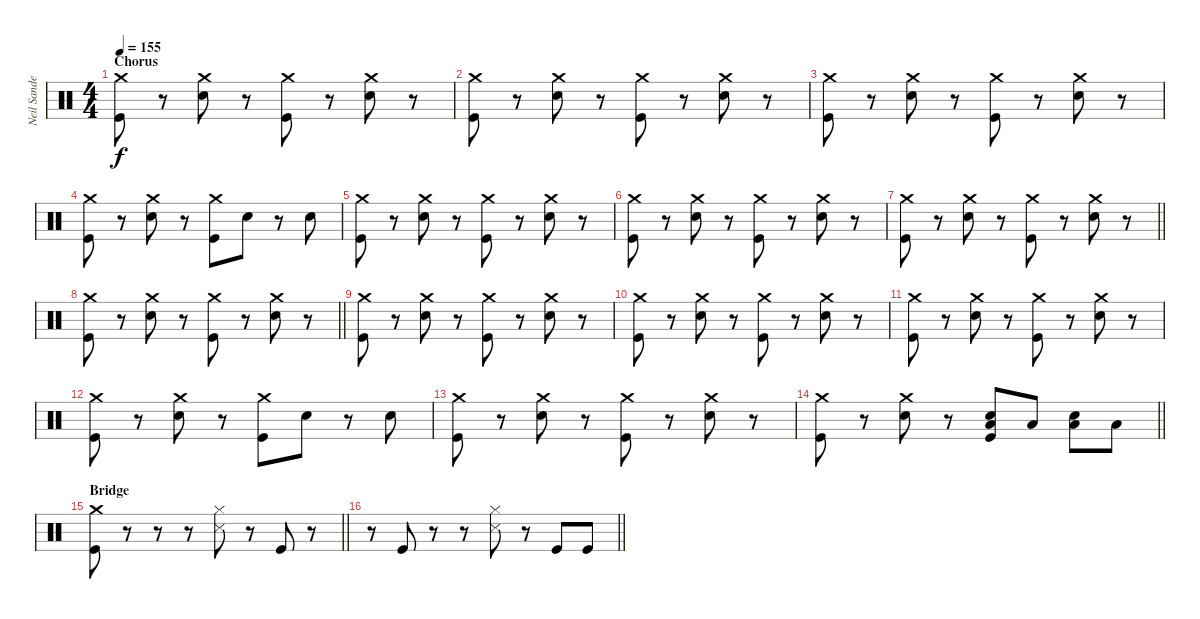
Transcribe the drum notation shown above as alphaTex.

\track ("Neil Sanderson" "Neil Sande") {instrument percussion}
\staff {score}
\articulation defaults
\ts (4 4)
\section ("" "Chorus")
\tempo 155
\clef neutral
\ks c
("Kick (hit)" "Crash medium (hit)").8{dy f} r.8 ("Electric Snare (hit)" "Crash medium (hit)").8 r.8 ("Kick (hit)" "Crash medium (hit)").8 r.8 ("Electric Snare (hit)" "Crash medium (hit)").8 r.8 |
("Kick (hit)" "Crash medium (hit)").8 r.8 ("Electric Snare (hit)" "Crash medium (hit)").8 r.8 ("Kick (hit)" "Crash medium (hit)").8 r.8 ("Electric Snare (hit)" "Crash medium (hit)").8 r.8 |
("Kick (hit)" "Crash medium (hit)").8 r.8 ("Electric Snare (hit)" "Crash medium (hit)").8 r.8 ("Kick (hit)" "Crash medium (hit)").8 r.8 ("Electric Snare (hit)" "Crash medium (hit)").8 r.8 |
("Kick (hit)" "Crash medium (hit)").8 r.8 ("Electric Snare (hit)" "Crash medium (hit)").8 r.8 ("Kick (hit)" "Crash medium (hit)").8 "Electric Snare (hit)".8 r.8 "Electric Snare (hit)".8 |
("Kick (hit)" "Crash medium (hit)").8 r.8 ("Electric Snare (hit)" "Crash medium (hit)").8 r.8 ("Kick (hit)" "Crash medium (hit)").8 r.8 ("Electric Snare (hit)" "Crash medium (hit)").8 r.8 |
("Kick (hit)" "Crash medium (hit)").8 r.8 ("Electric Snare (hit)" "Crash medium (hit)").8 r.8 ("Kick (hit)" "Crash medium (hit)").8 r.8 ("Electric Snare (hit)" "Crash medium (hit)").8 r.8 |
\barLineRight lightlight
("Kick (hit)" "Crash medium (hit)").8 r.8 ("Electric Snare (hit)" "Crash medium (hit)").8 r.8 ("Kick (hit)" "Crash medium (hit)").8 r.8 ("Electric Snare (hit)" "Crash medium (hit)").8 r.8 |
\barLineRight lightlight
("Kick (hit)" "Crash medium (hit)").8 r.8 ("Electric Snare (hit)" "Crash medium (hit)").8 r.8 ("Kick (hit)" "Crash medium (hit)").8 r.8 ("Electric Snare (hit)" "Crash medium (hit)").8 r.8 |
\section ("" "")
("Kick (hit)" "Crash medium (hit)").8 r.8 ("Electric Snare (hit)" "Crash medium (hit)").8 r.8 ("Kick (hit)" "Crash medium (hit)").8 r.8 ("Electric Snare (hit)" "Crash medium (hit)").8 r.8 |
("Kick (hit)" "Crash medium (hit)").8 r.8 ("Electric Snare (hit)" "Crash medium (hit)").8 r.8 ("Kick (hit)" "Crash medium (hit)").8 r.8 ("Electric Snare (hit)" "Crash medium (hit)").8 r.8 |
("Kick (hit)" "Crash medium (hit)").8 r.8 ("Electric Snare (hit)" "Crash medium (hit)").8 r.8 ("Kick (hit)" "Crash medium (hit)").8 r.8 ("Electric Snare (hit)" "Crash medium (hit)").8 r.8 |
("Kick (hit)" "Crash medium (hit)").8 r.8 ("Electric Snare (hit)" "Crash medium (hit)").8 r.8 ("Kick (hit)" "Crash medium (hit)").8 "Electric Snare (hit)".8 r.8 "Electric Snare (hit)".8 |
("Kick (hit)" "Crash medium (hit)").8 r.8 ("Electric Snare (hit)" "Crash medium (hit)").8 r.8 ("Kick (hit)" "Crash medium (hit)").8 r.8 ("Electric Snare (hit)" "Crash medium (hit)").8 r.8 |
\barLineRight lightlight
("Kick (hit)" "Crash medium (hit)").8 r.8 ("Electric Snare (hit)" "Crash medium (hit)").8 r.8 ("Kick (hit)" "Electric Snare (hit)" "Low Tom (hit)").8 "Low Tom (hit)".8 ("Electric Snare (hit)" "Low Tom (hit)").8 "Low Tom (hit)".8 |
\section ("" "Bridge")
\barLineRight lightlight
("Kick (hit)" "Crash medium (hit)").8 r.8 r.8 r.8 ("Snare (side stick) 3" "Hi-Hat (closed)").8 r.8 "Kick (hit)".8 r.8 |
\barLineRight lightlight
r.8 "Kick (hit)".8 r.8 r.8 ("Snare (side stick) 3" "Hi-Hat (closed)").8 r.8 "Kick (hit)".8 "Kick (hit)".8
